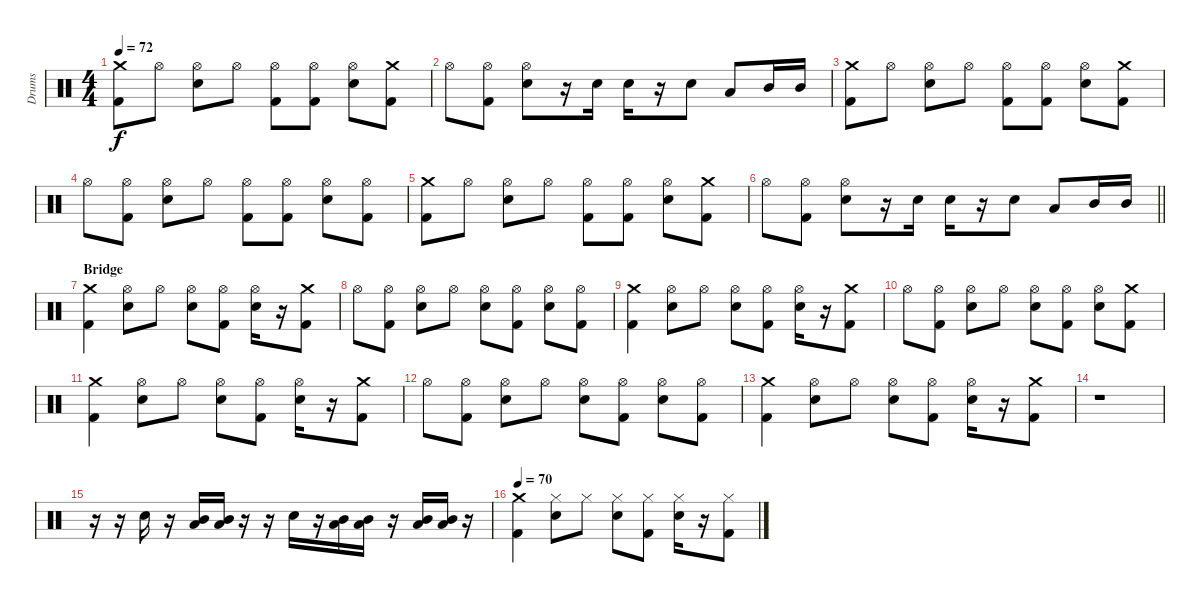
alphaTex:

\track ("Drums" "Drums") {instrument percussion}
\staff {score}
\articulation defaults
\ts (4 4)
\tempo 72
\clef neutral
\ks c
("Crash medium (hit)" "Kick (hit) 2").8{dy f} "Hi-Hat (open)".8 ("Hi-Hat (open)" "Snare (hit) 2").8 "Hi-Hat (open)".8 ("Hi-Hat (open)" "Kick (hit) 2").8 ("Hi-Hat (open)" "Kick (hit) 2").8 ("Hi-Hat (open)" "Snare (hit) 2").8 ("Crash medium (hit)" "Kick (hit) 2").8 |
"Hi-Hat (open)".8 ("Hi-Hat (open)" "Kick (hit) 2").8 ("Hi-Hat (open)" "Snare (hit) 2").8 r.16 "Snare (hit) 2".16 "Snare (hit) 2".16 r.16 "Snare (hit) 2".8 "Low Tom (hit)".8 "Mid Tom (hit)".16 "Mid Tom (hit)".16 |
("Crash medium (hit)" "Kick (hit) 2").8 "Hi-Hat (open)".8 ("Hi-Hat (open)" "Snare (hit) 2").8 "Hi-Hat (open)".8 ("Hi-Hat (open)" "Kick (hit) 2").8 ("Hi-Hat (open)" "Kick (hit) 2").8 ("Hi-Hat (open)" "Snare (hit) 2").8 ("Crash medium (hit)" "Kick (hit) 2").8 |
"Hi-Hat (open)".8 ("Hi-Hat (open)" "Kick (hit) 2").8 ("Hi-Hat (open)" "Snare (hit) 2").8 "Hi-Hat (open)".8 ("Hi-Hat (open)" "Kick (hit) 2").8 ("Hi-Hat (open)" "Kick (hit) 2").8 ("Hi-Hat (open)" "Snare (hit) 2").8 ("Hi-Hat (open)" "Kick (hit) 2").8 |
("Crash medium (hit)" "Kick (hit) 2").8 "Hi-Hat (open)".8 ("Hi-Hat (open)" "Snare (hit) 2").8 "Hi-Hat (open)".8 ("Hi-Hat (open)" "Kick (hit) 2").8 ("Hi-Hat (open)" "Kick (hit) 2").8 ("Hi-Hat (open)" "Snare (hit) 2").8 ("Crash medium (hit)" "Kick (hit) 2").8 |
\barLineRight lightlight "Hi-Hat (open)".8
("Hi-Hat (open)" "Kick (hit) 2").8 ("Hi-Hat (open)" "Snare (hit) 2").8 r.16 "Snare (hit) 2".16 "Snare (hit) 2".16 r.16 "Snare (hit) 2".8 "Low Tom (hit)".8 "Mid Tom (hit)".16 "Mid Tom (hit)".16 |
\section ("" "Bridge")
("Crash medium (hit)" "Kick (hit) 2").4 ("Hi-Hat (open)" "Snare (hit) 2").8 "Hi-Hat (open)".8 ("Hi-Hat (open)" "Snare (hit) 2").8 ("Hi-Hat (open)" "Kick (hit) 2").8 ("Hi-Hat (open)" "Snare (hit) 2").16 r.16 ("Crash medium (hit)" "Kick (hit) 2").8 |
"Hi-Hat (open)".8 ("Hi-Hat (open)" "Kick (hit) 2").8 ("Hi-Hat (open)" "Snare (hit) 2").8 "Hi-Hat (open)".8 ("Hi-Hat (open)" "Snare (hit) 2").8 ("Hi-Hat (open)" "Kick (hit) 2").8 ("Hi-Hat (open)" "Snare (hit) 2").8 ("Hi-Hat (open)" "Kick (hit) 2").8 |
("Crash medium (hit)" "Kick (hit) 2").4 ("Hi-Hat (open)" "Snare (hit) 2").8 "Hi-Hat (open)".8 ("Hi-Hat (open)" "Snare (hit) 2").8 ("Hi-Hat (open)" "Kick (hit) 2").8 ("Hi-Hat (open)" "Snare (hit) 2").16 r.16 ("Crash medium (hit)" "Kick (hit) 2").8 |
"Hi-Hat (open)".8 ("Hi-Hat (open)" "Kick (hit) 2").8 ("Hi-Hat (open)" "Snare (hit) 2").8 "Hi-Hat (open)".8 ("Hi-Hat (open)" "Snare (hit) 2").8 ("Hi-Hat (open)" "Kick (hit) 2").8 ("Hi-Hat (open)" "Snare (hit) 2").8 ("Crash medium (hit)" "Kick (hit) 2").8 |
("Crash medium (hit)" "Kick (hit) 2").4 ("Hi-Hat (open)" "Snare (hit) 2").8 "Hi-Hat (open)".8 ("Hi-Hat (open)" "Snare (hit) 2").8 ("Hi-Hat (open)" "Kick (hit) 2").8 ("Hi-Hat (open)" "Snare (hit) 2").16 r.16 ("Crash medium (hit)" "Kick (hit) 2").8 |
"Hi-Hat (open)".8 ("Hi-Hat (open)" "Kick (hit) 2").8 ("Hi-Hat (open)" "Snare (hit) 2").8 "Hi-Hat (open)".8 ("Hi-Hat (open)" "Snare (hit) 2").8 ("Hi-Hat (open)" "Kick (hit) 2").8 ("Hi-Hat (open)" "Snare (hit) 2").8 ("Hi-Hat (open)" "Kick (hit) 2").8 |
("Crash medium (hit)" "Kick (hit) 2").4 ("Hi-Hat (open)" "Snare (hit) 2").8 "Hi-Hat (open)".8 ("Hi-Hat (open)" "Snare (hit) 2").8 ("Hi-Hat (open)" "Kick (hit) 2").8 ("Hi-Hat (open)" "Snare (hit) 2").16 r.16 ("Crash medium (hit)" "Kick (hit) 2").8 |
r.1 |
r.16 r.16 "Snare (hit) 2".16 r.16 ("Low Tom (hit)" "Mid Tom (hit)").16 ("Low Tom (hit)" "Mid Tom (hit)").16 r.16 r.16 "Snare (hit) 2".16 r.16 ("Low Tom (hit)" "Mid Tom (hit)").16 ("Low Tom (hit)" "Mid Tom (hit)").16 r.16 ("Low Tom (hit)" "Mid Tom (hit)").16 ("Low Tom (hit)" "Mid Tom (hit)").16 r.16 |
\tempo 70
("Crash medium (hit)" "Kick (hit) 2").4 ("Hi-Hat (closed)" "Snare (hit) 2").8 "Hi-Hat (closed)".8 ("Hi-Hat (closed)" "Snare (hit) 2").8 ("Hi-Hat (closed)" "Kick (hit) 2").8 ("Hi-Hat (closed)" "Snare (hit) 2").16 r.16 ("Hi-Hat (closed)" "Kick (hit) 2").8
